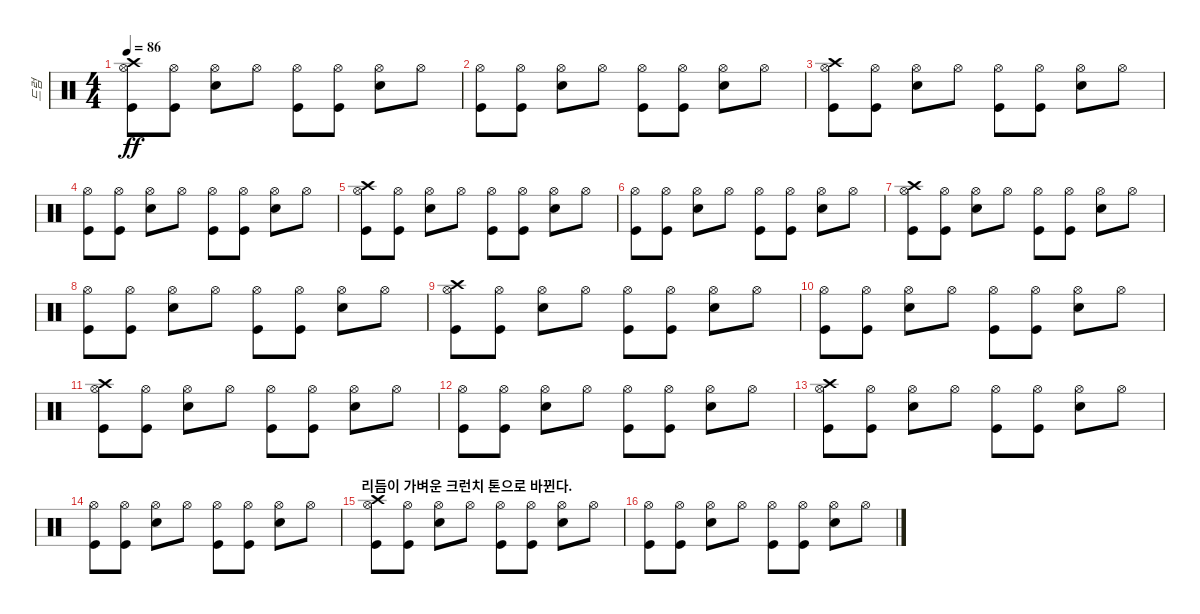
\track ("드럼" "드럼") {instrument percussion}
\staff {score}
\articulation defaults
\ts (4 4)
\tempo 86
\clef neutral
\ks c
("Crash high (hit)" "Kick (hit)" "Hi-Hat (open)").8{dy ff} ("Hi-Hat (open)" "Kick (hit)").8 ("Electric Snare (hit)" "Hi-Hat (open)").8 "Hi-Hat (open)".8 ("Hi-Hat (open)" "Kick (hit)").8 ("Hi-Hat (open)" "Kick (hit)").8 ("Hi-Hat (open)" "Electric Snare (hit)").8 "Hi-Hat (open)".8 |
("Kick (hit)" "Hi-Hat (open)").8 ("Kick (hit)" "Hi-Hat (open)").8 ("Hi-Hat (open)" "Electric Snare (hit)").8 "Hi-Hat (open)".8 ("Hi-Hat (open)" "Kick (hit)").8 ("Hi-Hat (open)" "Kick (hit)").8 ("Electric Snare (hit)" "Hi-Hat (open)").8 "Hi-Hat (open)".8 |
("Kick (hit)" "Hi-Hat (open)" "Crash high (hit)").8 ("Kick (hit)" "Hi-Hat (open)").8 ("Hi-Hat (open)" "Electric Snare (hit)").8 "Hi-Hat (open)".8 ("Hi-Hat (open)" "Kick (hit)").8 ("Hi-Hat (open)" "Kick (hit)").8 ("Hi-Hat (open)" "Electric Snare (hit)").8 "Hi-Hat (open)".8 |
("Hi-Hat (open)" "Kick (hit)").8 ("Hi-Hat (open)" "Kick (hit)").8 ("Hi-Hat (open)" "Electric Snare (hit)").8 "Hi-Hat (open)".8 ("Hi-Hat (open)" "Kick (hit)").8 ("Hi-Hat (open)" "Kick (hit)").8 ("Hi-Hat (open)" "Electric Snare (hit)").8 "Hi-Hat (open)".8 |
("Crash high (hit)" "Kick (hit)" "Hi-Hat (open)").8 ("Hi-Hat (open)" "Kick (hit)").8 ("Electric Snare (hit)" "Hi-Hat (open)").8 "Hi-Hat (open)".8 ("Hi-Hat (open)" "Kick (hit)").8 ("Hi-Hat (open)" "Kick (hit)").8 ("Hi-Hat (open)" "Electric Snare (hit)").8 "Hi-Hat (open)".8 |
("Kick (hit)" "Hi-Hat (open)").8 ("Kick (hit)" "Hi-Hat (open)").8 ("Hi-Hat (open)" "Electric Snare (hit)").8 "Hi-Hat (open)".8 ("Hi-Hat (open)" "Kick (hit)").8 ("Hi-Hat (open)" "Kick (hit)").8 ("Electric Snare (hit)" "Hi-Hat (open)").8 "Hi-Hat (open)".8 |
("Kick (hit)" "Hi-Hat (open)" "Crash high (hit)").8 ("Kick (hit)" "Hi-Hat (open)").8 ("Hi-Hat (open)" "Electric Snare (hit)").8 "Hi-Hat (open)".8 ("Hi-Hat (open)" "Kick (hit)").8 ("Hi-Hat (open)" "Kick (hit)").8 ("Hi-Hat (open)" "Electric Snare (hit)").8 "Hi-Hat (open)".8 |
("Hi-Hat (open)" "Kick (hit)").8 ("Hi-Hat (open)" "Kick (hit)").8 ("Hi-Hat (open)" "Electric Snare (hit)").8 "Hi-Hat (open)".8 ("Hi-Hat (open)" "Kick (hit)").8 ("Hi-Hat (open)" "Kick (hit)").8 ("Hi-Hat (open)" "Electric Snare (hit)").8 "Hi-Hat (open)".8 |
("Crash high (hit)" "Kick (hit)" "Hi-Hat (open)").8 ("Hi-Hat (open)" "Kick (hit)").8 ("Electric Snare (hit)" "Hi-Hat (open)").8 "Hi-Hat (open)".8 ("Hi-Hat (open)" "Kick (hit)").8 ("Hi-Hat (open)" "Kick (hit)").8 ("Hi-Hat (open)" "Electric Snare (hit)").8 "Hi-Hat (open)".8 |
("Kick (hit)" "Hi-Hat (open)").8 ("Kick (hit)" "Hi-Hat (open)").8 ("Hi-Hat (open)" "Electric Snare (hit)").8 "Hi-Hat (open)".8 ("Hi-Hat (open)" "Kick (hit)").8 ("Hi-Hat (open)" "Kick (hit)").8 ("Electric Snare (hit)" "Hi-Hat (open)").8 "Hi-Hat (open)".8 |
("Kick (hit)" "Hi-Hat (open)" "Crash high (hit)").8 ("Kick (hit)" "Hi-Hat (open)").8 ("Hi-Hat (open)" "Electric Snare (hit)").8 "Hi-Hat (open)".8 ("Hi-Hat (open)" "Kick (hit)").8 ("Hi-Hat (open)" "Kick (hit)").8 ("Hi-Hat (open)" "Electric Snare (hit)").8 "Hi-Hat (open)".8 |
("Hi-Hat (open)" "Kick (hit)").8 ("Hi-Hat (open)" "Kick (hit)").8 ("Hi-Hat (open)" "Electric Snare (hit)").8 "Hi-Hat (open)".8 ("Hi-Hat (open)" "Kick (hit)").8 ("Hi-Hat (open)" "Kick (hit)").8 ("Hi-Hat (open)" "Electric Snare (hit)").8 "Hi-Hat (open)".8 |
("Crash high (hit)" "Kick (hit)" "Hi-Hat (open)").8 ("Hi-Hat (open)" "Kick (hit)").8 ("Electric Snare (hit)" "Hi-Hat (open)").8 "Hi-Hat (open)".8 ("Hi-Hat (open)" "Kick (hit)").8 ("Hi-Hat (open)" "Kick (hit)").8 ("Hi-Hat (open)" "Electric Snare (hit)").8 "Hi-Hat (open)".8 |
("Kick (hit)" "Hi-Hat (open)").8 ("Kick (hit)" "Hi-Hat (open)").8 ("Hi-Hat (open)" "Electric Snare (hit)").8 "Hi-Hat (open)".8 ("Hi-Hat (open)" "Kick (hit)").8 ("Hi-Hat (open)" "Kick (hit)").8 ("Electric Snare (hit)" "Hi-Hat (open)").8 "Hi-Hat (open)".8 |
\section ("" "리듬이 가벼운 크런치 톤으로 바뀐다.")
("Crash high (hit)" "Kick (hit)" "Hi-Hat (open)").8 ("Hi-Hat (open)" "Kick (hit)").8 ("Electric Snare (hit)" "Hi-Hat (open)").8 "Hi-Hat (open)".8 ("Hi-Hat (open)" "Kick (hit)").8 ("Hi-Hat (open)" "Kick (hit)").8 ("Hi-Hat (open)" "Electric Snare (hit)").8 "Hi-Hat (open)".8 |
("Kick (hit)" "Hi-Hat (open)").8 ("Kick (hit)" "Hi-Hat (open)").8 ("Hi-Hat (open)" "Electric Snare (hit)").8 "Hi-Hat (open)".8 ("Hi-Hat (open)" "Kick (hit)").8 ("Hi-Hat (open)" "Kick (hit)").8 ("Electric Snare (hit)" "Hi-Hat (open)").8 "Hi-Hat (open)".8
